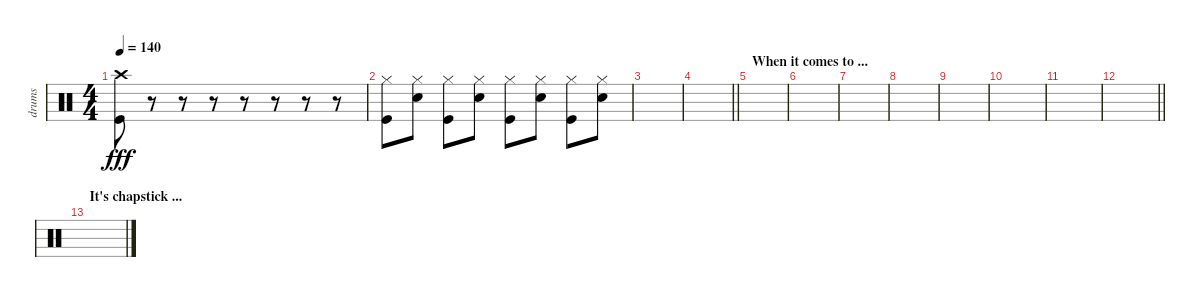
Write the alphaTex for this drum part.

\track ("drums" "drums") {instrument percussion}
\staff {score}
\articulation defaults
\ts (4 4)
\tempo 140
\clef neutral
\ks c
("Crash high (hit)" "Kick (hit)").8{dy fff} r.8 r.8 r.8 r.8 r.8 r.8 r.8 |
("Hi-Hat (closed)" "Kick (hit)").8 ("Hi-Hat (closed)" "Snare (hit) 2").8 ("Hi-Hat (closed)" "Kick (hit)").8 ("Hi-Hat (closed)" "Snare (hit) 2").8 ("Hi-Hat (closed)" "Kick (hit)").8 ("Hi-Hat (closed)" "Snare (hit) 2").8 ("Hi-Hat (closed)" "Kick (hit)").8 ("Hi-Hat (closed)" "Snare (hit) 2").8 |
|
\barLineRight lightlight
|
\section ("" "When it comes to ...")
|
|
|
|
|
|
|
\barLineRight lightlight
|
\section ("" "It's chapstick ...")
